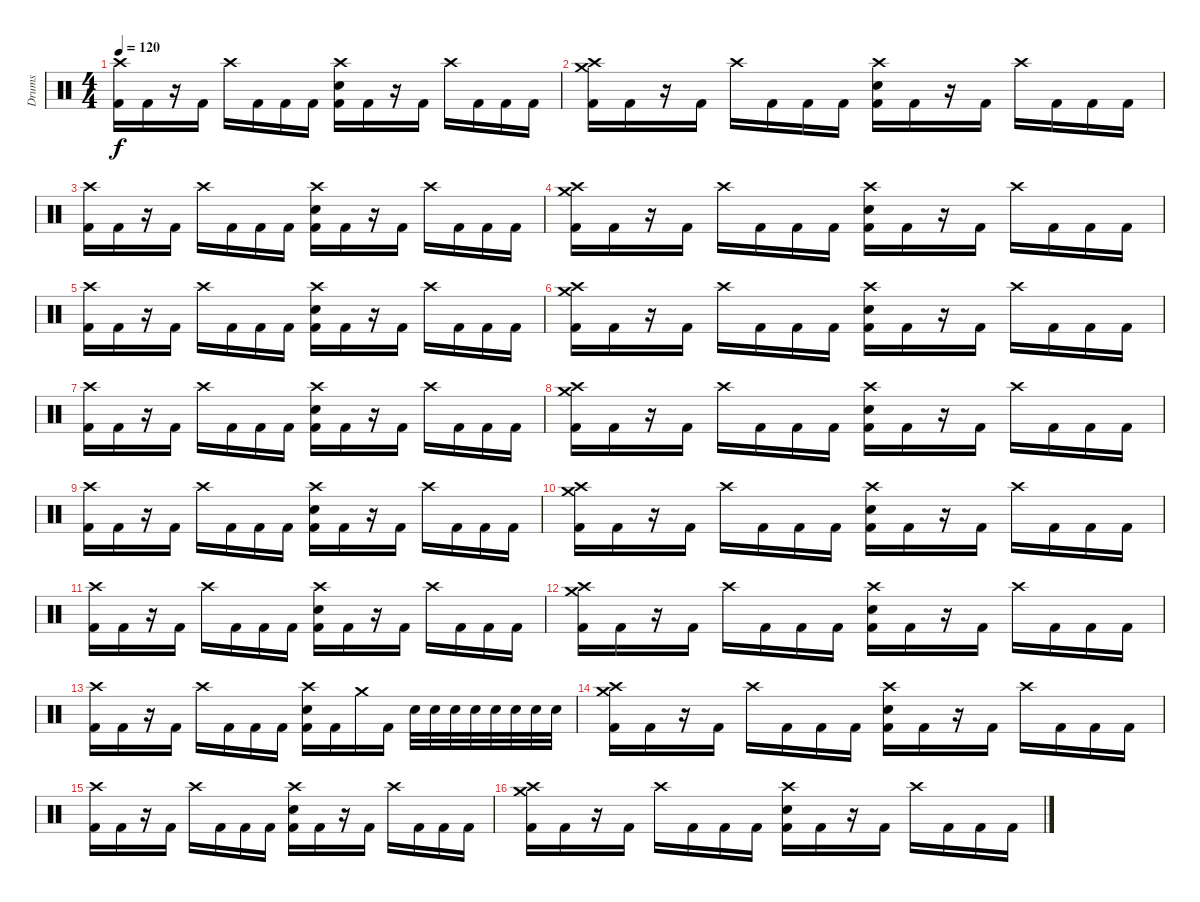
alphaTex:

\track ("Drums" "Drums") {instrument percussion}
\staff {score}
\articulation defaults
\ts (4 4)
\tempo 120
\clef neutral
\ks c
("Crash high (hit)" "Kick (hit) 2").16{dy f} "Kick (hit) 2".16 r.16 "Kick (hit) 2".16 "Crash high (hit)".16 "Kick (hit) 2".16 "Kick (hit) 2".16 "Kick (hit) 2".16 ("Crash high (hit)" "Electric Snare (hit)" "Kick (hit) 2").16 "Kick (hit) 2".16 r.16 "Kick (hit) 2".16 "Crash high (hit)".16 "Kick (hit) 2".16 "Kick (hit) 2".16 "Kick (hit) 2".16 |
("Crash high (hit)" "Crash medium (hit)" "Kick (hit) 2").16 "Kick (hit) 2".16 r.16 "Kick (hit) 2".16 "Crash high (hit)".16 "Kick (hit) 2".16 "Kick (hit) 2".16 "Kick (hit) 2".16 ("Crash high (hit)" "Electric Snare (hit)" "Kick (hit) 2").16 "Kick (hit) 2".16 r.16 "Kick (hit) 2".16 "Crash high (hit)".16 "Kick (hit) 2".16 "Kick (hit) 2".16 "Kick (hit) 2".16 |
("Crash high (hit)" "Kick (hit) 2").16 "Kick (hit) 2".16 r.16 "Kick (hit) 2".16 "Crash high (hit)".16 "Kick (hit) 2".16 "Kick (hit) 2".16 "Kick (hit) 2".16 ("Crash high (hit)" "Electric Snare (hit)" "Kick (hit) 2").16 "Kick (hit) 2".16 r.16 "Kick (hit) 2".16 "Crash high (hit)".16 "Kick (hit) 2".16 "Kick (hit) 2".16 "Kick (hit) 2".16 |
("Crash high (hit)" "Crash medium (hit)" "Kick (hit) 2").16 "Kick (hit) 2".16 r.16 "Kick (hit) 2".16 "Crash high (hit)".16 "Kick (hit) 2".16 "Kick (hit) 2".16 "Kick (hit) 2".16 ("Crash high (hit)" "Electric Snare (hit)" "Kick (hit) 2").16 "Kick (hit) 2".16 r.16 "Kick (hit) 2".16 "Crash high (hit)".16 "Kick (hit) 2".16 "Kick (hit) 2".16 "Kick (hit) 2".16 |
("Crash high (hit)" "Kick (hit) 2").16 "Kick (hit) 2".16 r.16 "Kick (hit) 2".16 "Crash high (hit)".16 "Kick (hit) 2".16 "Kick (hit) 2".16 "Kick (hit) 2".16 ("Crash high (hit)" "Electric Snare (hit)" "Kick (hit) 2").16 "Kick (hit) 2".16 r.16 "Kick (hit) 2".16 "Crash high (hit)".16 "Kick (hit) 2".16 "Kick (hit) 2".16 "Kick (hit) 2".16 |
("Crash high (hit)" "Crash medium (hit)" "Kick (hit) 2").16 "Kick (hit) 2".16 r.16 "Kick (hit) 2".16 "Crash high (hit)".16 "Kick (hit) 2".16 "Kick (hit) 2".16 "Kick (hit) 2".16 ("Crash high (hit)" "Electric Snare (hit)" "Kick (hit) 2").16 "Kick (hit) 2".16 r.16 "Kick (hit) 2".16 "Crash high (hit)".16 "Kick (hit) 2".16 "Kick (hit) 2".16 "Kick (hit) 2".16 |
("Crash high (hit)" "Kick (hit) 2").16 "Kick (hit) 2".16 r.16 "Kick (hit) 2".16 "Crash high (hit)".16 "Kick (hit) 2".16 "Kick (hit) 2".16 "Kick (hit) 2".16 ("Crash high (hit)" "Electric Snare (hit)" "Kick (hit) 2").16 "Kick (hit) 2".16 r.16 "Kick (hit) 2".16 "Crash high (hit)".16 "Kick (hit) 2".16 "Kick (hit) 2".16 "Kick (hit) 2".16 |
("Crash high (hit)" "Crash medium (hit)" "Kick (hit) 2").16 "Kick (hit) 2".16 r.16 "Kick (hit) 2".16 "Crash high (hit)".16 "Kick (hit) 2".16 "Kick (hit) 2".16 "Kick (hit) 2".16 ("Crash high (hit)" "Electric Snare (hit)" "Kick (hit) 2").16 "Kick (hit) 2".16 r.16 "Kick (hit) 2".16 "Crash high (hit)".16 "Kick (hit) 2".16 "Kick (hit) 2".16 "Kick (hit) 2".16 |
("Crash high (hit)" "Kick (hit) 2").16 "Kick (hit) 2".16 r.16 "Kick (hit) 2".16 "Crash high (hit)".16 "Kick (hit) 2".16 "Kick (hit) 2".16 "Kick (hit) 2".16 ("Crash high (hit)" "Electric Snare (hit)" "Kick (hit) 2").16 "Kick (hit) 2".16 r.16 "Kick (hit) 2".16 "Crash high (hit)".16 "Kick (hit) 2".16 "Kick (hit) 2".16 "Kick (hit) 2".16 |
("Crash high (hit)" "Crash medium (hit)" "Kick (hit) 2").16 "Kick (hit) 2".16 r.16 "Kick (hit) 2".16 "Crash high (hit)".16 "Kick (hit) 2".16 "Kick (hit) 2".16 "Kick (hit) 2".16 ("Crash high (hit)" "Electric Snare (hit)" "Kick (hit) 2").16 "Kick (hit) 2".16 r.16 "Kick (hit) 2".16 "Crash high (hit)".16 "Kick (hit) 2".16 "Kick (hit) 2".16 "Kick (hit) 2".16 |
("Crash high (hit)" "Kick (hit) 2").16 "Kick (hit) 2".16 r.16 "Kick (hit) 2".16 "Crash high (hit)".16 "Kick (hit) 2".16 "Kick (hit) 2".16 "Kick (hit) 2".16 ("Crash high (hit)" "Electric Snare (hit)" "Kick (hit) 2").16 "Kick (hit) 2".16 r.16 "Kick (hit) 2".16 "Crash high (hit)".16 "Kick (hit) 2".16 "Kick (hit) 2".16 "Kick (hit) 2".16 |
("Crash high (hit)" "Crash medium (hit)" "Kick (hit) 2").16 "Kick (hit) 2".16 r.16 "Kick (hit) 2".16 "Crash high (hit)".16 "Kick (hit) 2".16 "Kick (hit) 2".16 "Kick (hit) 2".16 ("Crash high (hit)" "Electric Snare (hit)" "Kick (hit) 2").16 "Kick (hit) 2".16 r.16 "Kick (hit) 2".16 "Crash high (hit)".16 "Kick (hit) 2".16 "Kick (hit) 2".16 "Kick (hit) 2".16 |
("Crash high (hit)" "Kick (hit) 2").16 "Kick (hit) 2".16 r.16 "Kick (hit) 2".16 "Crash high (hit)".16 "Kick (hit) 2".16 "Kick (hit) 2".16 "Kick (hit) 2".16 ("Crash high (hit)" "Electric Snare (hit)" "Kick (hit) 2").16 "Kick (hit) 2".16 "Crash medium (hit)".16 "Kick (hit) 2".16 "Electric Snare (hit)".32 "Electric Snare (hit)".32 "Electric Snare (hit)".32 "Electric Snare (hit)".32 "Electric Snare (hit)".32 "Electric Snare (hit)".32 "Electric Snare (hit)".32 "Electric Snare (hit)".32 |
("Crash high (hit)" "Crash medium (hit)" "Kick (hit) 2").16 "Kick (hit) 2".16 r.16 "Kick (hit) 2".16 "Crash high (hit)".16 "Kick (hit) 2".16 "Kick (hit) 2".16 "Kick (hit) 2".16 ("Crash high (hit)" "Electric Snare (hit)" "Kick (hit) 2").16 "Kick (hit) 2".16 r.16 "Kick (hit) 2".16 "Crash high (hit)".16 "Kick (hit) 2".16 "Kick (hit) 2".16 "Kick (hit) 2".16 |
("Crash high (hit)" "Kick (hit) 2").16 "Kick (hit) 2".16 r.16 "Kick (hit) 2".16 "Crash high (hit)".16 "Kick (hit) 2".16 "Kick (hit) 2".16 "Kick (hit) 2".16 ("Crash high (hit)" "Electric Snare (hit)" "Kick (hit) 2").16 "Kick (hit) 2".16 r.16 "Kick (hit) 2".16 "Crash high (hit)".16 "Kick (hit) 2".16 "Kick (hit) 2".16 "Kick (hit) 2".16 |
("Crash high (hit)" "Crash medium (hit)" "Kick (hit) 2").16 "Kick (hit) 2".16 r.16 "Kick (hit) 2".16 "Crash high (hit)".16 "Kick (hit) 2".16 "Kick (hit) 2".16 "Kick (hit) 2".16 ("Crash high (hit)" "Electric Snare (hit)" "Kick (hit) 2").16 "Kick (hit) 2".16 r.16 "Kick (hit) 2".16 "Crash high (hit)".16 "Kick (hit) 2".16 "Kick (hit) 2".16 "Kick (hit) 2".16
